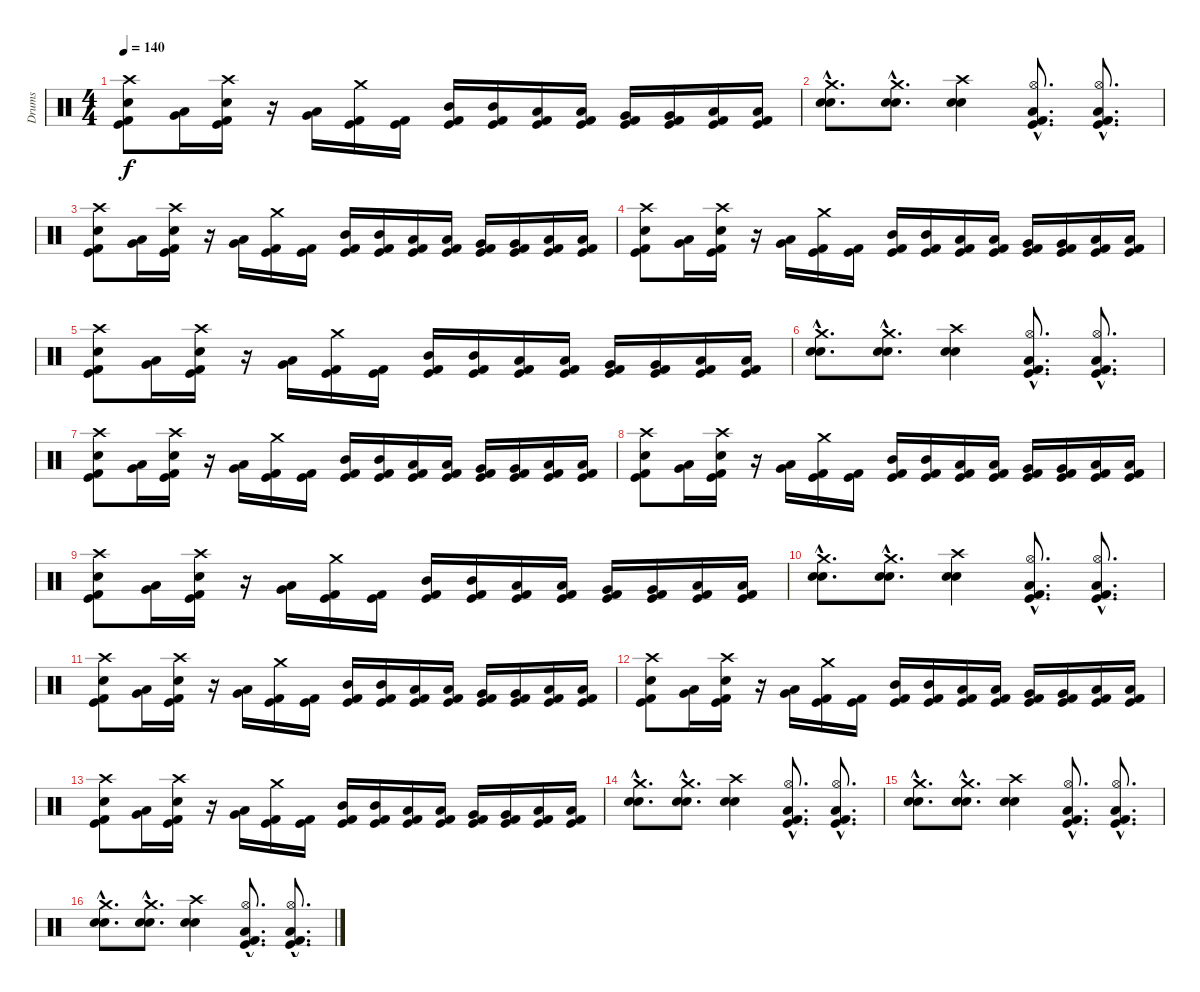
\track ("Drums" "Drums") {instrument percussion}
\staff {score}
\articulation defaults
\ts (4 4)
\tempo 140
\clef neutral
\ks c
("Crash high (hit)" "Electric Snare (hit)" "Kick (hit)" "Kick (hit) 2").8{dy f} ("Very Low Tom (hit)" "Low Tom (hit)").16 ("Crash high (hit)" "Electric Snare (hit)" "Kick (hit)" "Kick (hit) 2").16 r.16 ("Very Low Tom (hit)" "Low Tom (hit)").16 ("Crash medium (hit)" "Kick (hit) 2" "Kick (hit)").16 ("Kick (hit)" "Kick (hit) 2").16 ("Mid Tom (hit)" "Kick (hit) 2" "Kick (hit)").16 ("Mid Tom (hit)" "Kick (hit) 2" "Kick (hit)").16 ("Low Tom (hit)" "Kick (hit) 2" "Kick (hit)").16 ("Low Tom (hit)" "Kick (hit) 2" "Kick (hit)").16 ("Very Low Tom (hit)" "Kick (hit) 2" "Kick (hit)").16 ("Very Low Tom (hit)" "Kick (hit) 2" "Kick (hit)").16 ("Low Tom (hit)" "Kick (hit) 2" "Kick (hit)").16 ("Low Tom (hit)" "Kick (hit) 2" "Kick (hit)").16 |
("Crash medium (hit)"{hac} "Snare (hit) 2"{hac} "Electric Snare (hit)"{hac}).8{d} ("Crash medium (hit)"{hac} "Snare (hit) 2"{hac} "Electric Snare (hit)"{hac}).8{d} ("Crash high (hit)" "Snare (hit) 2" "Electric Snare (hit)").4 ("Hi-Hat (open)"{hac} "Low Floor Tom (hit)"{hac} "Kick (hit)"{hac} "Kick (hit) 2"{hac}).8{d} ("Hi-Hat (open)"{hac} "Low Floor Tom (hit)"{hac} "Kick (hit)"{hac} "Kick (hit) 2"{hac}).8{d} |
("Crash high (hit)" "Electric Snare (hit)" "Kick (hit)" "Kick (hit) 2").8 ("Very Low Tom (hit)" "Low Tom (hit)").16 ("Crash high (hit)" "Electric Snare (hit)" "Kick (hit)" "Kick (hit) 2").16 r.16 ("Very Low Tom (hit)" "Low Tom (hit)").16 ("Crash medium (hit)" "Kick (hit) 2" "Kick (hit)").16 ("Kick (hit)" "Kick (hit) 2").16 ("Mid Tom (hit)" "Kick (hit) 2" "Kick (hit)").16 ("Mid Tom (hit)" "Kick (hit) 2" "Kick (hit)").16 ("Low Tom (hit)" "Kick (hit) 2" "Kick (hit)").16 ("Low Tom (hit)" "Kick (hit) 2" "Kick (hit)").16 ("Very Low Tom (hit)" "Kick (hit) 2" "Kick (hit)").16 ("Very Low Tom (hit)" "Kick (hit) 2" "Kick (hit)").16 ("Low Tom (hit)" "Kick (hit) 2" "Kick (hit)").16 ("Low Tom (hit)" "Kick (hit) 2" "Kick (hit)").16 |
("Crash high (hit)" "Electric Snare (hit)" "Kick (hit)" "Kick (hit) 2").8 ("Very Low Tom (hit)" "Low Tom (hit)").16 ("Crash high (hit)" "Electric Snare (hit)" "Kick (hit)" "Kick (hit) 2").16 r.16 ("Very Low Tom (hit)" "Low Tom (hit)").16 ("Crash medium (hit)" "Kick (hit) 2" "Kick (hit)").16 ("Kick (hit)" "Kick (hit) 2").16 ("Mid Tom (hit)" "Kick (hit) 2" "Kick (hit)").16 ("Mid Tom (hit)" "Kick (hit) 2" "Kick (hit)").16 ("Low Tom (hit)" "Kick (hit) 2" "Kick (hit)").16 ("Low Tom (hit)" "Kick (hit) 2" "Kick (hit)").16 ("Very Low Tom (hit)" "Kick (hit) 2" "Kick (hit)").16 ("Very Low Tom (hit)" "Kick (hit) 2" "Kick (hit)").16 ("Low Tom (hit)" "Kick (hit) 2" "Kick (hit)").16 ("Low Tom (hit)" "Kick (hit) 2" "Kick (hit)").16 |
("Crash high (hit)" "Electric Snare (hit)" "Kick (hit)" "Kick (hit) 2").8 ("Very Low Tom (hit)" "Low Tom (hit)").16 ("Crash high (hit)" "Electric Snare (hit)" "Kick (hit)" "Kick (hit) 2").16 r.16 ("Very Low Tom (hit)" "Low Tom (hit)").16 ("Crash medium (hit)" "Kick (hit) 2" "Kick (hit)").16 ("Kick (hit)" "Kick (hit) 2").16 ("Mid Tom (hit)" "Kick (hit) 2" "Kick (hit)").16 ("Mid Tom (hit)" "Kick (hit) 2" "Kick (hit)").16 ("Low Tom (hit)" "Kick (hit) 2" "Kick (hit)").16 ("Low Tom (hit)" "Kick (hit) 2" "Kick (hit)").16 ("Very Low Tom (hit)" "Kick (hit) 2" "Kick (hit)").16 ("Very Low Tom (hit)" "Kick (hit) 2" "Kick (hit)").16 ("Low Tom (hit)" "Kick (hit) 2" "Kick (hit)").16 ("Low Tom (hit)" "Kick (hit) 2" "Kick (hit)").16 |
("Crash medium (hit)"{hac} "Snare (hit) 2"{hac} "Electric Snare (hit)"{hac}).8{d} ("Crash medium (hit)"{hac} "Snare (hit) 2"{hac} "Electric Snare (hit)"{hac}).8{d} ("Crash high (hit)" "Snare (hit) 2" "Electric Snare (hit)").4 ("Hi-Hat (open)"{hac} "Low Floor Tom (hit)"{hac} "Kick (hit)"{hac} "Kick (hit) 2"{hac}).8{d} ("Hi-Hat (open)"{hac} "Low Floor Tom (hit)"{hac} "Kick (hit)"{hac} "Kick (hit) 2"{hac}).8{d} |
("Crash high (hit)" "Electric Snare (hit)" "Kick (hit)" "Kick (hit) 2").8 ("Very Low Tom (hit)" "Low Tom (hit)").16 ("Crash high (hit)" "Electric Snare (hit)" "Kick (hit)" "Kick (hit) 2").16 r.16 ("Very Low Tom (hit)" "Low Tom (hit)").16 ("Crash medium (hit)" "Kick (hit) 2" "Kick (hit)").16 ("Kick (hit)" "Kick (hit) 2").16 ("Mid Tom (hit)" "Kick (hit) 2" "Kick (hit)").16 ("Mid Tom (hit)" "Kick (hit) 2" "Kick (hit)").16 ("Low Tom (hit)" "Kick (hit) 2" "Kick (hit)").16 ("Low Tom (hit)" "Kick (hit) 2" "Kick (hit)").16 ("Very Low Tom (hit)" "Kick (hit) 2" "Kick (hit)").16 ("Very Low Tom (hit)" "Kick (hit) 2" "Kick (hit)").16 ("Low Tom (hit)" "Kick (hit) 2" "Kick (hit)").16 ("Low Tom (hit)" "Kick (hit) 2" "Kick (hit)").16 |
("Crash high (hit)" "Electric Snare (hit)" "Kick (hit)" "Kick (hit) 2").8 ("Very Low Tom (hit)" "Low Tom (hit)").16 ("Crash high (hit)" "Electric Snare (hit)" "Kick (hit)" "Kick (hit) 2").16 r.16 ("Very Low Tom (hit)" "Low Tom (hit)").16 ("Crash medium (hit)" "Kick (hit) 2" "Kick (hit)").16 ("Kick (hit)" "Kick (hit) 2").16 ("Mid Tom (hit)" "Kick (hit) 2" "Kick (hit)").16 ("Mid Tom (hit)" "Kick (hit) 2" "Kick (hit)").16 ("Low Tom (hit)" "Kick (hit) 2" "Kick (hit)").16 ("Low Tom (hit)" "Kick (hit) 2" "Kick (hit)").16 ("Very Low Tom (hit)" "Kick (hit) 2" "Kick (hit)").16 ("Very Low Tom (hit)" "Kick (hit) 2" "Kick (hit)").16 ("Low Tom (hit)" "Kick (hit) 2" "Kick (hit)").16 ("Low Tom (hit)" "Kick (hit) 2" "Kick (hit)").16 |
("Crash high (hit)" "Electric Snare (hit)" "Kick (hit)" "Kick (hit) 2").8 ("Very Low Tom (hit)" "Low Tom (hit)").16 ("Crash high (hit)" "Electric Snare (hit)" "Kick (hit)" "Kick (hit) 2").16 r.16 ("Very Low Tom (hit)" "Low Tom (hit)").16 ("Crash medium (hit)" "Kick (hit) 2" "Kick (hit)").16 ("Kick (hit)" "Kick (hit) 2").16 ("Mid Tom (hit)" "Kick (hit) 2" "Kick (hit)").16 ("Mid Tom (hit)" "Kick (hit) 2" "Kick (hit)").16 ("Low Tom (hit)" "Kick (hit) 2" "Kick (hit)").16 ("Low Tom (hit)" "Kick (hit) 2" "Kick (hit)").16 ("Very Low Tom (hit)" "Kick (hit) 2" "Kick (hit)").16 ("Very Low Tom (hit)" "Kick (hit) 2" "Kick (hit)").16 ("Low Tom (hit)" "Kick (hit) 2" "Kick (hit)").16 ("Low Tom (hit)" "Kick (hit) 2" "Kick (hit)").16 |
("Crash medium (hit)"{hac} "Snare (hit) 2"{hac} "Electric Snare (hit)"{hac}).8{d} ("Crash medium (hit)"{hac} "Snare (hit) 2"{hac} "Electric Snare (hit)"{hac}).8{d} ("Crash high (hit)" "Snare (hit) 2" "Electric Snare (hit)").4 ("Hi-Hat (open)"{hac} "Low Floor Tom (hit)"{hac} "Kick (hit)"{hac} "Kick (hit) 2"{hac}).8{d} ("Hi-Hat (open)"{hac} "Low Floor Tom (hit)"{hac} "Kick (hit)"{hac} "Kick (hit) 2"{hac}).8{d} |
("Crash high (hit)" "Electric Snare (hit)" "Kick (hit)" "Kick (hit) 2").8 ("Very Low Tom (hit)" "Low Tom (hit)").16 ("Crash high (hit)" "Electric Snare (hit)" "Kick (hit)" "Kick (hit) 2").16 r.16 ("Very Low Tom (hit)" "Low Tom (hit)").16 ("Crash medium (hit)" "Kick (hit) 2" "Kick (hit)").16 ("Kick (hit)" "Kick (hit) 2").16 ("Mid Tom (hit)" "Kick (hit) 2" "Kick (hit)").16 ("Mid Tom (hit)" "Kick (hit) 2" "Kick (hit)").16 ("Low Tom (hit)" "Kick (hit) 2" "Kick (hit)").16 ("Low Tom (hit)" "Kick (hit) 2" "Kick (hit)").16 ("Very Low Tom (hit)" "Kick (hit) 2" "Kick (hit)").16 ("Very Low Tom (hit)" "Kick (hit) 2" "Kick (hit)").16 ("Low Tom (hit)" "Kick (hit) 2" "Kick (hit)").16 ("Low Tom (hit)" "Kick (hit) 2" "Kick (hit)").16 |
("Crash high (hit)" "Electric Snare (hit)" "Kick (hit)" "Kick (hit) 2").8 ("Very Low Tom (hit)" "Low Tom (hit)").16 ("Crash high (hit)" "Electric Snare (hit)" "Kick (hit)" "Kick (hit) 2").16 r.16 ("Very Low Tom (hit)" "Low Tom (hit)").16 ("Crash medium (hit)" "Kick (hit) 2" "Kick (hit)").16 ("Kick (hit)" "Kick (hit) 2").16 ("Mid Tom (hit)" "Kick (hit) 2" "Kick (hit)").16 ("Mid Tom (hit)" "Kick (hit) 2" "Kick (hit)").16 ("Low Tom (hit)" "Kick (hit) 2" "Kick (hit)").16 ("Low Tom (hit)" "Kick (hit) 2" "Kick (hit)").16 ("Very Low Tom (hit)" "Kick (hit) 2" "Kick (hit)").16 ("Very Low Tom (hit)" "Kick (hit) 2" "Kick (hit)").16 ("Low Tom (hit)" "Kick (hit) 2" "Kick (hit)").16 ("Low Tom (hit)" "Kick (hit) 2" "Kick (hit)").16 |
("Crash high (hit)" "Electric Snare (hit)" "Kick (hit)" "Kick (hit) 2").8 ("Very Low Tom (hit)" "Low Tom (hit)").16 ("Crash high (hit)" "Electric Snare (hit)" "Kick (hit)" "Kick (hit) 2").16 r.16 ("Very Low Tom (hit)" "Low Tom (hit)").16 ("Crash medium (hit)" "Kick (hit) 2" "Kick (hit)").16 ("Kick (hit)" "Kick (hit) 2").16 ("Mid Tom (hit)" "Kick (hit) 2" "Kick (hit)").16 ("Mid Tom (hit)" "Kick (hit) 2" "Kick (hit)").16 ("Low Tom (hit)" "Kick (hit) 2" "Kick (hit)").16 ("Low Tom (hit)" "Kick (hit) 2" "Kick (hit)").16 ("Very Low Tom (hit)" "Kick (hit) 2" "Kick (hit)").16 ("Very Low Tom (hit)" "Kick (hit) 2" "Kick (hit)").16 ("Low Tom (hit)" "Kick (hit) 2" "Kick (hit)").16 ("Low Tom (hit)" "Kick (hit) 2" "Kick (hit)").16 |
("Crash medium (hit)"{hac} "Snare (hit) 2"{hac} "Electric Snare (hit)"{hac}).8{d} ("Crash medium (hit)"{hac} "Snare (hit) 2"{hac} "Electric Snare (hit)"{hac}).8{d} ("Crash high (hit)" "Snare (hit) 2" "Electric Snare (hit)").4 ("Hi-Hat (open)"{hac} "Low Floor Tom (hit)"{hac} "Kick (hit)"{hac} "Kick (hit) 2"{hac}).8{d} ("Hi-Hat (open)"{hac} "Low Floor Tom (hit)"{hac} "Kick (hit)"{hac} "Kick (hit) 2"{hac}).8{d} |
("Crash medium (hit)"{hac} "Snare (hit) 2"{hac} "Electric Snare (hit)"{hac}).8{d} ("Crash medium (hit)"{hac} "Snare (hit) 2"{hac} "Electric Snare (hit)"{hac}).8{d} ("Crash high (hit)" "Snare (hit) 2" "Electric Snare (hit)").4 ("Hi-Hat (open)"{hac} "Low Floor Tom (hit)"{hac} "Kick (hit)"{hac} "Kick (hit) 2"{hac}).8{d} ("Hi-Hat (open)"{hac} "Low Floor Tom (hit)"{hac} "Kick (hit)"{hac} "Kick (hit) 2"{hac}).8{d} |
("Crash medium (hit)"{hac} "Snare (hit) 2"{hac} "Electric Snare (hit)"{hac}).8{d} ("Crash medium (hit)"{hac} "Snare (hit) 2"{hac} "Electric Snare (hit)"{hac}).8{d} ("Crash high (hit)" "Snare (hit) 2" "Electric Snare (hit)").4 ("Hi-Hat (open)"{hac} "Low Floor Tom (hit)"{hac} "Kick (hit)"{hac} "Kick (hit) 2"{hac}).8{d} ("Hi-Hat (open)"{hac} "Low Floor Tom (hit)"{hac} "Kick (hit)"{hac} "Kick (hit) 2"{hac}).8{d}
